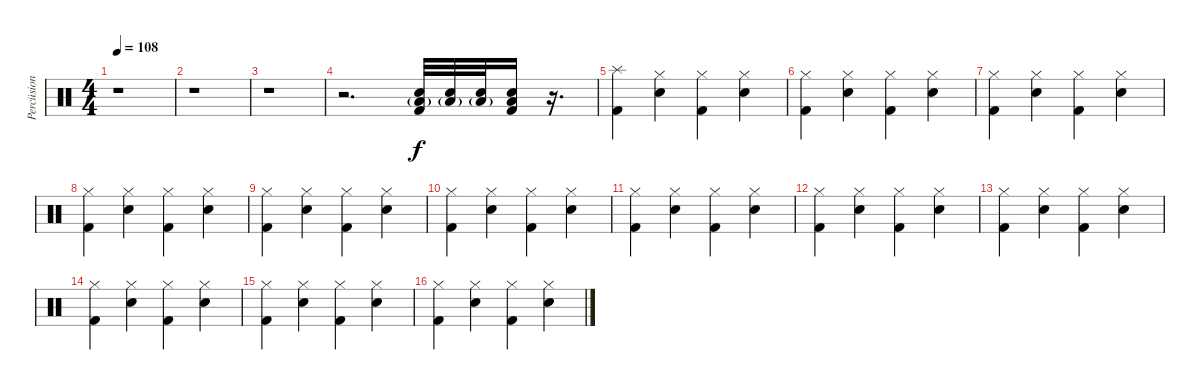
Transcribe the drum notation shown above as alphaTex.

\track ("Percüsion" "Percüsion") {instrument percussion}
\staff {score}
\articulation defaults
\ts (4 4)
\tempo 108
\clef neutral
\ks c
r.1{dy f} |
r.1 |
r.1 |
r.2{d} ("Snare (hit) 2" "Low Tom (hit)"{g} "Kick (hit) 2").32 ("Snare (hit) 2" "Low Tom (hit)"{g}).32 ("Snare (hit) 2" "Low Tom (hit)"{g}).32 ("Snare (hit) 2" "Low Tom (hit)" "Kick (hit) 2").16 r.16{d} |
("Splash (hit)" "Kick (hit) 2").4 ("Hi-Hat (closed)" "Snare (hit) 2").4 ("Hi-Hat (closed)" "Kick (hit) 2").4 ("Hi-Hat (closed)" "Snare (hit) 2").4 |
("Hi-Hat (closed)" "Kick (hit) 2").4 ("Hi-Hat (closed)" "Snare (hit) 2").4 ("Hi-Hat (closed)" "Kick (hit) 2").4 ("Hi-Hat (closed)" "Snare (hit) 2").4 |
("Hi-Hat (closed)" "Kick (hit) 2").4 ("Hi-Hat (closed)" "Snare (hit) 2").4 ("Hi-Hat (closed)" "Kick (hit) 2").4 ("Hi-Hat (closed)" "Snare (hit) 2").4 |
("Hi-Hat (closed)" "Kick (hit) 2").4 ("Hi-Hat (closed)" "Snare (hit) 2").4 ("Hi-Hat (closed)" "Kick (hit) 2").4 ("Hi-Hat (closed)" "Snare (hit) 2").4 |
("Hi-Hat (closed)" "Kick (hit) 2").4 ("Hi-Hat (closed)" "Snare (hit) 2").4 ("Hi-Hat (closed)" "Kick (hit) 2").4 ("Hi-Hat (closed)" "Snare (hit) 2").4 |
("Hi-Hat (closed)" "Kick (hit) 2").4 ("Hi-Hat (closed)" "Snare (hit) 2").4 ("Hi-Hat (closed)" "Kick (hit) 2").4 ("Hi-Hat (closed)" "Snare (hit) 2").4 |
("Hi-Hat (closed)" "Kick (hit) 2").4 ("Hi-Hat (closed)" "Snare (hit) 2").4 ("Hi-Hat (closed)" "Kick (hit) 2").4 ("Hi-Hat (closed)" "Snare (hit) 2").4 |
("Hi-Hat (closed)" "Kick (hit) 2").4 ("Hi-Hat (closed)" "Snare (hit) 2").4 ("Hi-Hat (closed)" "Kick (hit) 2").4 ("Hi-Hat (closed)" "Snare (hit) 2").4 |
("Hi-Hat (closed)" "Kick (hit) 2").4 ("Hi-Hat (closed)" "Snare (hit) 2").4 ("Hi-Hat (closed)" "Kick (hit) 2").4 ("Hi-Hat (closed)" "Snare (hit) 2").4 |
("Hi-Hat (closed)" "Kick (hit) 2").4 ("Hi-Hat (closed)" "Snare (hit) 2").4 ("Hi-Hat (closed)" "Kick (hit) 2").4 ("Hi-Hat (closed)" "Snare (hit) 2").4 |
("Hi-Hat (closed)" "Kick (hit) 2").4 ("Hi-Hat (closed)" "Snare (hit) 2").4 ("Hi-Hat (closed)" "Kick (hit) 2").4 ("Hi-Hat (closed)" "Snare (hit) 2").4 |
("Hi-Hat (closed)" "Kick (hit) 2").4 ("Hi-Hat (closed)" "Snare (hit) 2").4 ("Hi-Hat (closed)" "Kick (hit) 2").4 ("Hi-Hat (closed)" "Snare (hit) 2").4
